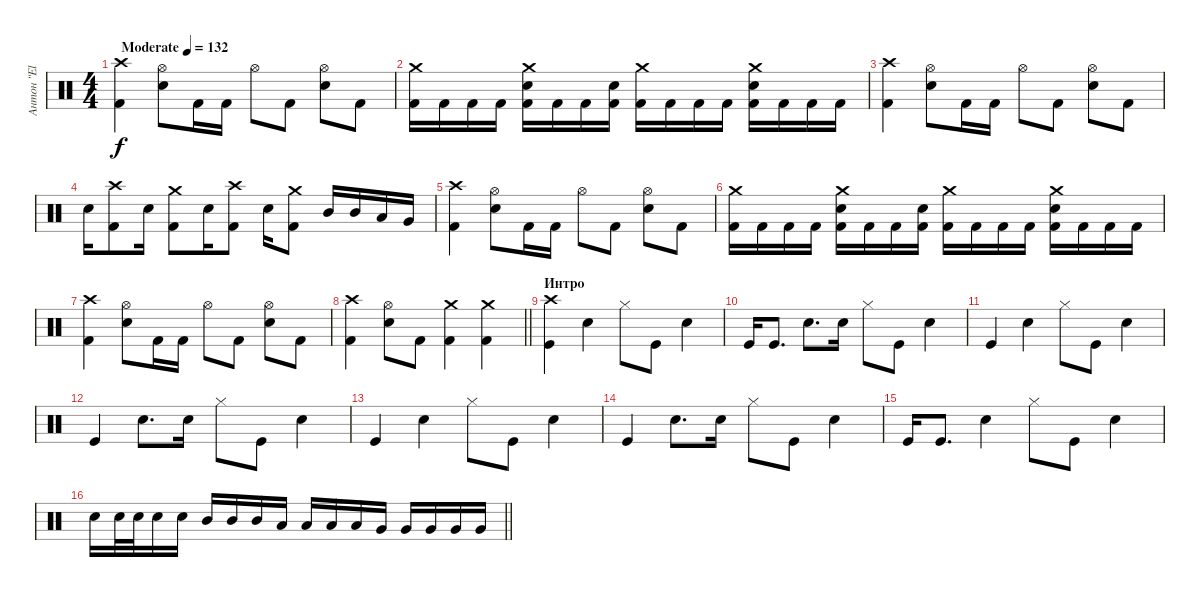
\track ("Антон \"El Bastardo\" Смольянин" "Антон \"El ") {instrument percussion}
\staff {score}
\articulation defaults
\ts (4 4)
\tempo (132 "Moderate")
\clef neutral
\ks c
("Crash high (hit)" "Kick (hit) 2").4{dy f} ("Hi-Hat (open)" "Electric Snare (hit)").8 "Kick (hit) 2".16 "Kick (hit) 2".16 "Hi-Hat (open)".8 "Kick (hit) 2".8 ("Hi-Hat (open)" "Electric Snare (hit)").8 "Kick (hit) 2".8 |
("Crash medium (hit)" "Kick (hit) 2").16 "Kick (hit) 2".16 "Kick (hit) 2".16 "Kick (hit) 2".16 ("Crash medium (hit)" "Electric Snare (hit)" "Kick (hit) 2").16 "Kick (hit) 2".16 "Kick (hit) 2".16 ("Electric Snare (hit)" "Kick (hit) 2").16 ("Crash medium (hit)" "Kick (hit) 2").16 "Kick (hit) 2".16 "Kick (hit) 2".16 "Kick (hit) 2".16 ("Crash medium (hit)" "Electric Snare (hit)" "Kick (hit) 2").16 "Kick (hit) 2".16 "Kick (hit) 2".16 "Kick (hit) 2".16 |
("Crash high (hit)" "Kick (hit) 2").4 ("Hi-Hat (open)" "Electric Snare (hit)").8 "Kick (hit) 2".16 "Kick (hit) 2".16 "Hi-Hat (open)".8 "Kick (hit) 2".8 ("Hi-Hat (open)" "Electric Snare (hit)").8 "Kick (hit) 2".8 |
"Electric Snare (hit)".16 ("Crash high (hit)" "Kick (hit) 2").8 "Electric Snare (hit)".16 ("Crash medium (hit)" "Kick (hit) 2").8 "Electric Snare (hit)".16 ("Crash high (hit)" "Kick (hit) 2").8 "Electric Snare (hit)".16 ("Crash medium (hit)" "Kick (hit) 2").8 "Mid Tom (hit)".16 "Mid Tom (hit)".16 "Low Tom (hit)".16 "Very Low Tom (hit)".16 |
("Crash high (hit)" "Kick (hit) 2").4 ("Hi-Hat (open)" "Electric Snare (hit)").8 "Kick (hit) 2".16 "Kick (hit) 2".16 "Hi-Hat (open)".8 "Kick (hit) 2".8 ("Hi-Hat (open)" "Electric Snare (hit)").8 "Kick (hit) 2".8 |
("Crash medium (hit)" "Kick (hit) 2").16 "Kick (hit) 2".16 "Kick (hit) 2".16 "Kick (hit) 2".16 ("Crash medium (hit)" "Electric Snare (hit)" "Kick (hit) 2").16 "Kick (hit) 2".16 "Kick (hit) 2".16 ("Electric Snare (hit)" "Kick (hit) 2").16 ("Crash medium (hit)" "Kick (hit) 2").16 "Kick (hit) 2".16 "Kick (hit) 2".16 "Kick (hit) 2".16 ("Crash medium (hit)" "Electric Snare (hit)" "Kick (hit) 2").16 "Kick (hit) 2".16 "Kick (hit) 2".16 "Kick (hit) 2".16 |
("Crash high (hit)" "Kick (hit) 2").4 ("Hi-Hat (open)" "Electric Snare (hit)").8 "Kick (hit) 2".16 "Kick (hit) 2".16 "Hi-Hat (open)".8 "Kick (hit) 2".8 ("Hi-Hat (open)" "Electric Snare (hit)").8 "Kick (hit) 2".8 |
\barLineRight lightlight
("Crash high (hit)" "Kick (hit) 2").4 ("Hi-Hat (open)" "Electric Snare (hit)").8 "Kick (hit) 2".8 ("Crash medium (hit)" "Kick (hit) 2").4 ("Crash medium (hit)" "Kick (hit) 2").4 |
\section ("" "Интро")
("Crash high (hit)" "Kick (hit)").4 "Electric Snare (hit)".4{volume 9} "Hi-Hat (closed)".8 "Kick (hit)".8 "Electric Snare (hit)".4 |
"Kick (hit)".16 "Kick (hit)".8{d} "Electric Snare (hit)".8{d} "Electric Snare (hit)".16 "Hi-Hat (closed)".8 "Kick (hit)".8 "Electric Snare (hit)".4 |
"Kick (hit)".4 "Electric Snare (hit)".4 "Hi-Hat (closed)".8 "Kick (hit)".8 "Electric Snare (hit)".4 |
"Kick (hit)".4 "Electric Snare (hit)".8{d} "Electric Snare (hit)".16 "Hi-Hat (closed)".8 "Kick (hit)".8 "Electric Snare (hit)".4 |
"Kick (hit)".4 "Electric Snare (hit)".4 "Hi-Hat (closed)".8 "Kick (hit)".8 "Electric Snare (hit)".4 |
"Kick (hit)".4 "Electric Snare (hit)".8{d} "Electric Snare (hit)".16 "Hi-Hat (closed)".8 "Kick (hit)".8 "Electric Snare (hit)".4 |
"Kick (hit)".16 "Kick (hit)".8{d} "Electric Snare (hit)".4 "Hi-Hat (closed)".8 "Kick (hit)".8 "Electric Snare (hit)".4 |
\barLineRight lightlight "Electric Snare (hit)".16{volume 13} "Electric Snare (hit)".32 "Electric Snare (hit)".32 "Electric Snare (hit)".16 "Electric Snare (hit)".16 "Mid Tom (hit)".16 "Mid Tom (hit)".16 "Mid Tom (hit)".16 "Low Tom (hit)".16 "Low Tom (hit)".16 "Low Tom (hit)".16 "Low Tom (hit)".16 "Very Low Tom (hit)".16 "Very Low Tom (hit)".16 "Very Low Tom (hit)".16 "Very Low Tom (hit)".16 "Very Low Tom (hit)".16
